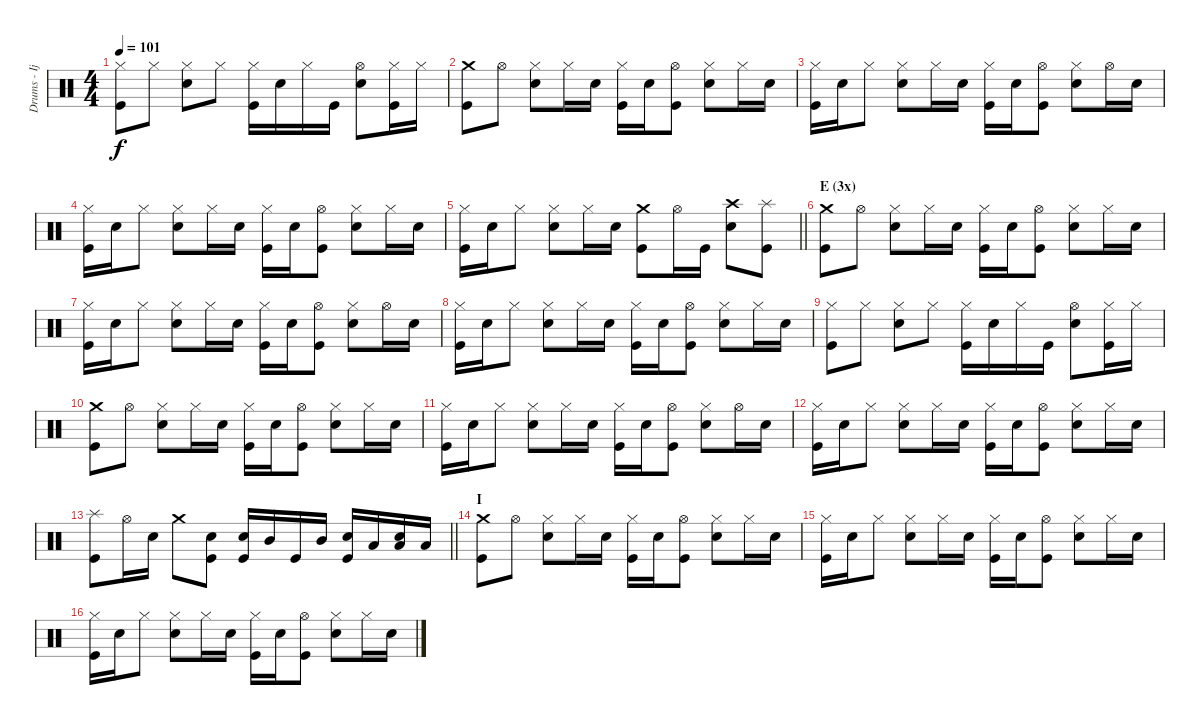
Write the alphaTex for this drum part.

\track ("Drums - Ijichi" "Drums - Ij") {instrument percussion}
\staff {score}
\articulation defaults
\ts (4 4)
\tempo 101
\clef neutral
\ks c
("Hi-Hat (closed)" "Kick (hit)").8{dy f} "Hi-Hat (closed)".8 ("Hi-Hat (closed)" "Electric Snare (hit)").8 "Hi-Hat (closed)".8 ("Hi-Hat (closed)" "Kick (hit)").16 "Electric Snare (hit)".16 "Hi-Hat (closed)".16 "Kick (hit)".16 ("Hi-Hat (open)" "Electric Snare (hit)").8 ("Hi-Hat (closed)" "Kick (hit)").16 "Hi-Hat (closed)".16 |
("Crash medium (hit)" "Kick (hit)").8 "Hi-Hat (open)".8 ("Hi-Hat (closed)" "Electric Snare (hit)").8 "Hi-Hat (closed)".16 "Electric Snare (hit)".16 ("Hi-Hat (closed)" "Kick (hit)").16 "Electric Snare (hit)".16 ("Hi-Hat (open)" "Kick (hit)").8 ("Hi-Hat (closed)" "Electric Snare (hit)").8 "Hi-Hat (closed)".16 "Electric Snare (hit)".16 |
("Hi-Hat (closed)" "Kick (hit)").16 "Electric Snare (hit)".16 "Hi-Hat (closed)".8 ("Hi-Hat (closed)" "Electric Snare (hit)").8 "Hi-Hat (closed)".16 "Electric Snare (hit)".16 ("Hi-Hat (closed)" "Kick (hit)").16 "Electric Snare (hit)".16 ("Hi-Hat (open)" "Kick (hit)").8 ("Hi-Hat (closed)" "Electric Snare (hit)").8 "Hi-Hat (open)".16 "Electric Snare (hit)".16 |
("Hi-Hat (closed)" "Kick (hit)").16 "Electric Snare (hit)".16 "Hi-Hat (closed)".8 ("Hi-Hat (closed)" "Electric Snare (hit)").8 "Hi-Hat (closed)".16 "Electric Snare (hit)".16 ("Hi-Hat (closed)" "Kick (hit)").16 "Electric Snare (hit)".16 ("Hi-Hat (open)" "Kick (hit)").8 ("Hi-Hat (closed)" "Electric Snare (hit)").8 "Hi-Hat (closed)".16 "Electric Snare (hit)".16 |
\barLineRight lightlight
("Hi-Hat (closed)" "Kick (hit)").16 "Electric Snare (hit)".16 "Hi-Hat (closed)".8 ("Hi-Hat (closed)" "Electric Snare (hit)").8 "Hi-Hat (closed)".16 "Electric Snare (hit)".16 ("Crash medium (hit)" "Kick (hit)").8 "Hi-Hat (open)".16 "Kick (hit)".16 ("Crash high (hit)" "Electric Snare (hit)").8 ("Splash (hit)" "Kick (hit)").8 |
\section ("" "E (3x)")
("Crash medium (hit)" "Kick (hit)").8 "Hi-Hat (open)".8 ("Hi-Hat (closed)" "Electric Snare (hit)").8 "Hi-Hat (closed)".16 "Electric Snare (hit)".16 ("Hi-Hat (closed)" "Kick (hit)").16 "Electric Snare (hit)".16 ("Hi-Hat (open)" "Kick (hit)").8 ("Hi-Hat (closed)" "Electric Snare (hit)").8 "Hi-Hat (closed)".16 "Electric Snare (hit)".16 |
("Hi-Hat (closed)" "Kick (hit)").16 "Electric Snare (hit)".16 "Hi-Hat (closed)".8 ("Hi-Hat (closed)" "Electric Snare (hit)").8 "Hi-Hat (closed)".16 "Electric Snare (hit)".16 ("Hi-Hat (closed)" "Kick (hit)").16 "Electric Snare (hit)".16 ("Hi-Hat (open)" "Kick (hit)").8 ("Hi-Hat (closed)" "Electric Snare (hit)").8 "Hi-Hat (open)".16 "Electric Snare (hit)".16 |
("Hi-Hat (closed)" "Kick (hit)").16 "Electric Snare (hit)".16 "Hi-Hat (closed)".8 ("Hi-Hat (closed)" "Electric Snare (hit)").8 "Hi-Hat (closed)".16 "Electric Snare (hit)".16 ("Hi-Hat (closed)" "Kick (hit)").16 "Electric Snare (hit)".16 ("Hi-Hat (open)" "Kick (hit)").8 ("Hi-Hat (closed)" "Electric Snare (hit)").8 "Hi-Hat (closed)".16 "Electric Snare (hit)".16 |
("Hi-Hat (closed)" "Kick (hit)").8 "Hi-Hat (closed)".8 ("Hi-Hat (closed)" "Electric Snare (hit)").8 "Hi-Hat (closed)".8 ("Hi-Hat (closed)" "Kick (hit)").16 "Electric Snare (hit)".16 "Hi-Hat (closed)".16 "Kick (hit)".16 ("Hi-Hat (open)" "Electric Snare (hit)").8 ("Hi-Hat (closed)" "Kick (hit)").16 "Hi-Hat (closed)".16 |
("Crash medium (hit)" "Kick (hit)").8 "Hi-Hat (open)".8 ("Hi-Hat (closed)" "Electric Snare (hit)").8 "Hi-Hat (closed)".16 "Electric Snare (hit)".16 ("Hi-Hat (closed)" "Kick (hit)").16 "Electric Snare (hit)".16 ("Hi-Hat (open)" "Kick (hit)").8 ("Hi-Hat (closed)" "Electric Snare (hit)").8 "Hi-Hat (closed)".16 "Electric Snare (hit)".16 |
("Hi-Hat (closed)" "Kick (hit)").16 "Electric Snare (hit)".16 "Hi-Hat (closed)".8 ("Hi-Hat (closed)" "Electric Snare (hit)").8 "Hi-Hat (closed)".16 "Electric Snare (hit)".16 ("Hi-Hat (closed)" "Kick (hit)").16 "Electric Snare (hit)".16 ("Hi-Hat (open)" "Kick (hit)").8 ("Hi-Hat (closed)" "Electric Snare (hit)").8 "Hi-Hat (open)".16 "Electric Snare (hit)".16 |
("Hi-Hat (closed)" "Kick (hit)").16 "Electric Snare (hit)".16 "Hi-Hat (closed)".8 ("Hi-Hat (closed)" "Electric Snare (hit)").8 "Hi-Hat (closed)".16 "Electric Snare (hit)".16 ("Hi-Hat (closed)" "Kick (hit)").16 "Electric Snare (hit)".16 ("Hi-Hat (open)" "Kick (hit)").8 ("Hi-Hat (closed)" "Electric Snare (hit)").8 "Hi-Hat (closed)".16 "Electric Snare (hit)".16 |
\barLineRight lightlight
("Splash (hit)" "Kick (hit)").8 "Hi-Hat (open)".16 "Electric Snare (hit)".16 "Crash medium (hit)".8 ("Electric Snare (hit)" "Kick (hit)").8 ("Electric Snare (hit)" "Kick (hit)").16 "Mid Tom (hit)".16 "Kick (hit)".16 "Mid Tom (hit)".16 ("Electric Snare (hit)" "Kick (hit)").16 "Low Tom (hit)".16 ("Low Tom (hit)" "Electric Snare (hit)").16 "Low Tom (hit)".16 |
\section ("" "I")
("Crash medium (hit)" "Kick (hit)").8 "Hi-Hat (open)".8 ("Hi-Hat (closed)" "Electric Snare (hit)").8 "Hi-Hat (closed)".16 "Electric Snare (hit)".16 ("Hi-Hat (closed)" "Kick (hit)").16 "Electric Snare (hit)".16 ("Hi-Hat (open)" "Kick (hit)").8 ("Hi-Hat (closed)" "Electric Snare (hit)").8 "Hi-Hat (closed)".16 "Electric Snare (hit)".16 |
("Hi-Hat (closed)" "Kick (hit)").16 "Electric Snare (hit)".16 "Hi-Hat (closed)".8 ("Hi-Hat (closed)" "Electric Snare (hit)").8 "Hi-Hat (closed)".16 "Electric Snare (hit)".16 ("Hi-Hat (closed)" "Kick (hit)").16 "Electric Snare (hit)".16 ("Hi-Hat (open)" "Kick (hit)").8 ("Hi-Hat (closed)" "Electric Snare (hit)").8 "Hi-Hat (closed)".16 "Electric Snare (hit)".16 |
("Hi-Hat (closed)" "Kick (hit)").16 "Electric Snare (hit)".16 "Hi-Hat (closed)".8 ("Hi-Hat (closed)" "Electric Snare (hit)").8 "Hi-Hat (closed)".16 "Electric Snare (hit)".16 ("Hi-Hat (closed)" "Kick (hit)").16 "Electric Snare (hit)".16 ("Hi-Hat (open)" "Kick (hit)").8 ("Hi-Hat (closed)" "Electric Snare (hit)").8 "Hi-Hat (closed)".16 "Electric Snare (hit)".16
